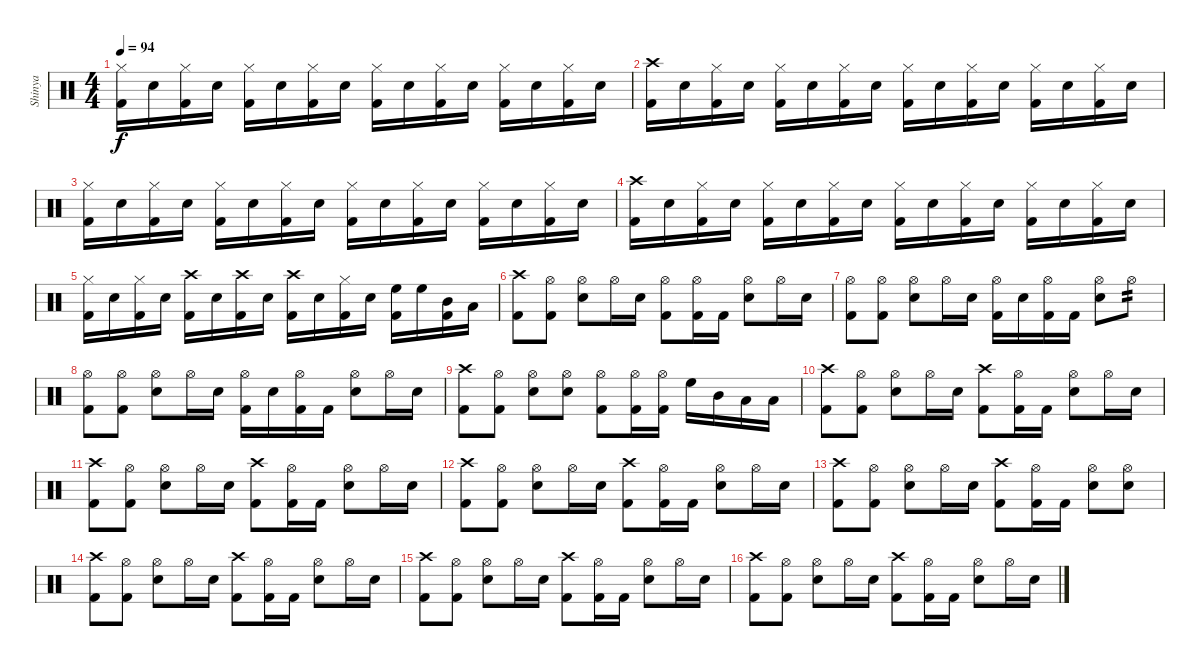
\track ("Shinya" "Shinya") {instrument percussion}
\staff {score}
\articulation defaults
\ts (4 4)
\tempo 94
\clef neutral
\ks c
("Hi-Hat (closed)" "Kick (hit) 2").16{dy f} "Snare (hit) 2".16 ("Hi-Hat (closed)" "Kick (hit) 2").16 "Snare (hit) 2".16 ("Hi-Hat (closed)" "Kick (hit) 2").16 "Snare (hit) 2".16 ("Hi-Hat (closed)" "Kick (hit) 2").16 "Snare (hit) 2".16 ("Hi-Hat (closed)" "Kick (hit) 2").16 "Snare (hit) 2".16 ("Hi-Hat (closed)" "Kick (hit) 2").16 "Snare (hit) 2".16 ("Hi-Hat (closed)" "Kick (hit) 2").16 "Snare (hit) 2".16 ("Hi-Hat (closed)" "Kick (hit) 2").16 "Snare (hit) 2".16 |
("Crash high (hit)" "Kick (hit) 2").16 "Snare (hit) 2".16 ("Hi-Hat (closed)" "Kick (hit) 2").16 "Snare (hit) 2".16 ("Hi-Hat (closed)" "Kick (hit) 2").16 "Snare (hit) 2".16 ("Hi-Hat (closed)" "Kick (hit) 2").16 "Snare (hit) 2".16 ("Hi-Hat (closed)" "Kick (hit) 2").16 "Snare (hit) 2".16 ("Hi-Hat (closed)" "Kick (hit) 2").16 "Snare (hit) 2".16 ("Hi-Hat (closed)" "Kick (hit) 2").16 "Snare (hit) 2".16 ("Hi-Hat (closed)" "Kick (hit) 2").16 "Snare (hit) 2".16 |
("Hi-Hat (closed)" "Kick (hit) 2").16 "Snare (hit) 2".16 ("Hi-Hat (closed)" "Kick (hit) 2").16 "Snare (hit) 2".16 ("Hi-Hat (closed)" "Kick (hit) 2").16 "Snare (hit) 2".16 ("Hi-Hat (closed)" "Kick (hit) 2").16 "Snare (hit) 2".16 ("Hi-Hat (closed)" "Kick (hit) 2").16 "Snare (hit) 2".16 ("Hi-Hat (closed)" "Kick (hit) 2").16 "Snare (hit) 2".16 ("Hi-Hat (closed)" "Kick (hit) 2").16 "Snare (hit) 2".16 ("Hi-Hat (closed)" "Kick (hit) 2").16 "Snare (hit) 2".16 |
("Crash high (hit)" "Kick (hit) 2").16 "Snare (hit) 2".16 ("Hi-Hat (closed)" "Kick (hit) 2").16 "Snare (hit) 2".16 ("Hi-Hat (closed)" "Kick (hit) 2").16 "Snare (hit) 2".16 ("Hi-Hat (closed)" "Kick (hit) 2").16 "Snare (hit) 2".16 ("Hi-Hat (closed)" "Kick (hit) 2").16 "Snare (hit) 2".16 ("Hi-Hat (closed)" "Kick (hit) 2").16 "Snare (hit) 2".16 ("Hi-Hat (closed)" "Kick (hit) 2").16 "Snare (hit) 2".16 ("Hi-Hat (closed)" "Kick (hit) 2").16 "Snare (hit) 2".16 |
("Hi-Hat (closed)" "Kick (hit) 2").16 "Snare (hit) 2".16 ("Hi-Hat (closed)" "Kick (hit) 2").16 "Snare (hit) 2".16 ("Crash high (hit)" "Kick (hit) 2").16 "Snare (hit) 2".16 ("Crash high (hit)" "Kick (hit) 2").16 "Snare (hit) 2".16 ("Crash high (hit)" "Kick (hit) 2").16 "Snare (hit) 2".16 ("Hi-Hat (closed)" "Kick (hit) 2").16 "Snare (hit) 2".16 ("High Floor Tom (hit)" "Kick (hit) 2").16 "High Floor Tom (hit)".16 ("Mid Tom (hit)" "Kick (hit) 2").16 "Low Tom (hit)".16 |
("Kick (hit) 2" "Crash high (hit)").8 ("Kick (hit) 2" "Hi-Hat (open)").8 ("Snare (hit) 2" "Hi-Hat (open)").8 "Hi-Hat (open)".16 "Snare (hit) 2".16 ("Hi-Hat (open)" "Kick (hit) 2").8 ("Hi-Hat (open)" "Kick (hit) 2").16 "Kick (hit) 2".16 ("Hi-Hat (open)" "Snare (hit) 2").8 "Hi-Hat (open)".16 "Snare (hit) 2".16 |
("Kick (hit) 2" "Hi-Hat (open)").8 ("Kick (hit) 2" "Hi-Hat (open)").8 ("Snare (hit) 2" "Hi-Hat (open)").8 "Hi-Hat (open)".16 "Snare (hit) 2".16 ("Hi-Hat (open)" "Kick (hit) 2").16 "Snare (hit) 2".16 ("Hi-Hat (open)" "Kick (hit) 2").16 "Kick (hit) 2".16 ("Hi-Hat (open)" "Snare (hit) 2").8 "Hi-Hat (open)".8{tp 2} |
("Kick (hit) 2" "Hi-Hat (open)").8 ("Kick (hit) 2" "Hi-Hat (open)").8 ("Snare (hit) 2" "Hi-Hat (open)").8 "Hi-Hat (open)".16 "Snare (hit) 2".16 ("Hi-Hat (open)" "Kick (hit) 2").16 "Snare (hit) 2".16 ("Hi-Hat (open)" "Kick (hit) 2").16 "Kick (hit) 2".16 ("Hi-Hat (open)" "Snare (hit) 2").8 "Hi-Hat (open)".16 "Snare (hit) 2".16 |
("Kick (hit) 2" "Crash high (hit)").8 ("Kick (hit) 2" "Hi-Hat (open)").8 ("Snare (hit) 2" "Hi-Hat (open)").8 ("Hi-Hat (open)" "Snare (hit) 2").8 ("Hi-Hat (open)" "Kick (hit) 2").8 ("Hi-Hat (open)" "Kick (hit) 2").16 ("Hi-Hat (open)" "Kick (hit) 2").16 "High Floor Tom (hit)".16 "Mid Tom (hit)".16 "Low Tom (hit)".16 "Low Tom (hit)".16 |
("Kick (hit) 2" "Crash high (hit)").8 ("Kick (hit) 2" "Hi-Hat (open)").8 ("Snare (hit) 2" "Hi-Hat (open)").8 "Hi-Hat (open)".16 "Snare (hit) 2".16 ("Crash high (hit)" "Kick (hit) 2").8 ("Hi-Hat (open)" "Kick (hit) 2").16 "Kick (hit) 2".16 ("Hi-Hat (open)" "Snare (hit) 2").8 "Hi-Hat (open)".16 "Snare (hit) 2".16 |
("Kick (hit) 2" "Crash high (hit)").8 ("Kick (hit) 2" "Hi-Hat (open)").8 ("Snare (hit) 2" "Hi-Hat (open)").8 "Hi-Hat (open)".16 "Snare (hit) 2".16 ("Crash high (hit)" "Kick (hit) 2").8 ("Hi-Hat (open)" "Kick (hit) 2").16 "Kick (hit) 2".16 ("Hi-Hat (open)" "Snare (hit) 2").8 "Hi-Hat (open)".16 "Snare (hit) 2".16 |
("Kick (hit) 2" "Crash high (hit)").8 ("Kick (hit) 2" "Hi-Hat (open)").8 ("Snare (hit) 2" "Hi-Hat (open)").8 "Hi-Hat (open)".16 "Snare (hit) 2".16 ("Crash high (hit)" "Kick (hit) 2").8 ("Hi-Hat (open)" "Kick (hit) 2").16 "Kick (hit) 2".16 ("Hi-Hat (open)" "Snare (hit) 2").8 "Hi-Hat (open)".16 "Snare (hit) 2".16 |
("Kick (hit) 2" "Crash high (hit)").8 ("Kick (hit) 2" "Hi-Hat (open)").8 ("Snare (hit) 2" "Hi-Hat (open)").8 "Hi-Hat (open)".16 "Snare (hit) 2".16 ("Crash high (hit)" "Kick (hit) 2").8 ("Hi-Hat (open)" "Kick (hit) 2").16 "Kick (hit) 2".16 ("Hi-Hat (open)" "Snare (hit) 2").8 ("Hi-Hat (open)" "Snare (hit) 2").8 |
("Kick (hit) 2" "Crash high (hit)").8 ("Kick (hit) 2" "Hi-Hat (open)").8 ("Snare (hit) 2" "Hi-Hat (open)").8 "Hi-Hat (open)".16 "Snare (hit) 2".16 ("Crash high (hit)" "Kick (hit) 2").8 ("Hi-Hat (open)" "Kick (hit) 2").16 "Kick (hit) 2".16 ("Hi-Hat (open)" "Snare (hit) 2").8 "Hi-Hat (open)".16 "Snare (hit) 2".16 |
("Kick (hit) 2" "Crash high (hit)").8 ("Kick (hit) 2" "Hi-Hat (open)").8 ("Snare (hit) 2" "Hi-Hat (open)").8 "Hi-Hat (open)".16 "Snare (hit) 2".16 ("Crash high (hit)" "Kick (hit) 2").8 ("Hi-Hat (open)" "Kick (hit) 2").16 "Kick (hit) 2".16 ("Hi-Hat (open)" "Snare (hit) 2").8 "Hi-Hat (open)".16 "Snare (hit) 2".16 |
("Kick (hit) 2" "Crash high (hit)").8 ("Kick (hit) 2" "Hi-Hat (open)").8 ("Snare (hit) 2" "Hi-Hat (open)").8 "Hi-Hat (open)".16 "Snare (hit) 2".16 ("Crash high (hit)" "Kick (hit) 2").8 ("Hi-Hat (open)" "Kick (hit) 2").16 "Kick (hit) 2".16 ("Hi-Hat (open)" "Snare (hit) 2").8 "Hi-Hat (open)".16 "Snare (hit) 2".16
